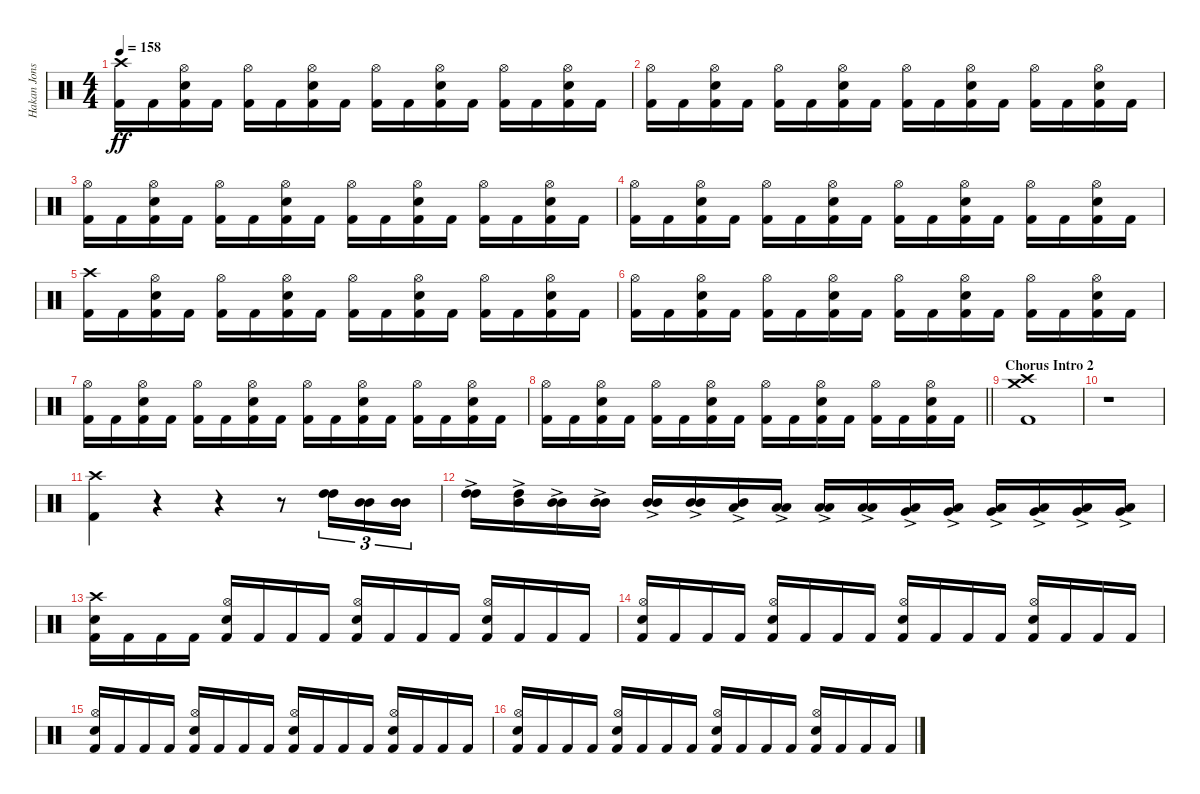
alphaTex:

\track ("Hakan Jonsson" "Hakan Jons") {instrument percussion}
\staff {score}
\articulation defaults
\ts (4 4)
\tempo 158
\clef neutral
\ks c
("Crash high (hit)" "Kick (hit) 2").16{dy ff} "Kick (hit) 2".16 ("Hi-Hat (open)" "Electric Snare (hit)" "Kick (hit) 2").16 "Kick (hit) 2".16 ("Hi-Hat (open)" "Kick (hit) 2").16 "Kick (hit) 2".16 ("Hi-Hat (open)" "Electric Snare (hit)" "Kick (hit) 2").16 "Kick (hit) 2".16 ("Hi-Hat (open)" "Kick (hit) 2").16 "Kick (hit) 2".16 ("Hi-Hat (open)" "Electric Snare (hit)" "Kick (hit) 2").16 "Kick (hit) 2".16 ("Hi-Hat (open)" "Kick (hit) 2").16 "Kick (hit) 2".16 ("Hi-Hat (open)" "Electric Snare (hit)" "Kick (hit) 2").16 "Kick (hit) 2".16 |
("Hi-Hat (open)" "Kick (hit) 2").16 "Kick (hit) 2".16 ("Hi-Hat (open)" "Electric Snare (hit)" "Kick (hit) 2").16 "Kick (hit) 2".16 ("Hi-Hat (open)" "Kick (hit) 2").16 "Kick (hit) 2".16 ("Hi-Hat (open)" "Electric Snare (hit)" "Kick (hit) 2").16 "Kick (hit) 2".16 ("Hi-Hat (open)" "Kick (hit) 2").16 "Kick (hit) 2".16 ("Hi-Hat (open)" "Electric Snare (hit)" "Kick (hit) 2").16 "Kick (hit) 2".16 ("Hi-Hat (open)" "Kick (hit) 2").16 "Kick (hit) 2".16 ("Hi-Hat (open)" "Electric Snare (hit)" "Kick (hit) 2").16 "Kick (hit) 2".16 |
("Hi-Hat (open)" "Kick (hit) 2").16 "Kick (hit) 2".16 ("Hi-Hat (open)" "Electric Snare (hit)" "Kick (hit) 2").16 "Kick (hit) 2".16 ("Hi-Hat (open)" "Kick (hit) 2").16 "Kick (hit) 2".16 ("Hi-Hat (open)" "Electric Snare (hit)" "Kick (hit) 2").16 "Kick (hit) 2".16 ("Hi-Hat (open)" "Kick (hit) 2").16 "Kick (hit) 2".16 ("Hi-Hat (open)" "Electric Snare (hit)" "Kick (hit) 2").16 "Kick (hit) 2".16 ("Hi-Hat (open)" "Kick (hit) 2").16 "Kick (hit) 2".16 ("Hi-Hat (open)" "Electric Snare (hit)" "Kick (hit) 2").16 "Kick (hit) 2".16 |
("Hi-Hat (open)" "Kick (hit) 2").16 "Kick (hit) 2".16 ("Hi-Hat (open)" "Electric Snare (hit)" "Kick (hit) 2").16 "Kick (hit) 2".16 ("Hi-Hat (open)" "Kick (hit) 2").16 "Kick (hit) 2".16 ("Hi-Hat (open)" "Electric Snare (hit)" "Kick (hit) 2").16 "Kick (hit) 2".16 ("Hi-Hat (open)" "Kick (hit) 2").16 "Kick (hit) 2".16 ("Hi-Hat (open)" "Electric Snare (hit)" "Kick (hit) 2").16 "Kick (hit) 2".16 ("Hi-Hat (open)" "Kick (hit) 2").16 "Kick (hit) 2".16 ("Hi-Hat (open)" "Electric Snare (hit)" "Kick (hit) 2").16 "Kick (hit) 2".16 |
("Crash high (hit)" "Kick (hit) 2").16 "Kick (hit) 2".16 ("Hi-Hat (open)" "Electric Snare (hit)" "Kick (hit) 2").16 "Kick (hit) 2".16 ("Hi-Hat (open)" "Kick (hit) 2").16 "Kick (hit) 2".16 ("Hi-Hat (open)" "Electric Snare (hit)" "Kick (hit) 2").16 "Kick (hit) 2".16 ("Hi-Hat (open)" "Kick (hit) 2").16 "Kick (hit) 2".16 ("Hi-Hat (open)" "Electric Snare (hit)" "Kick (hit) 2").16 "Kick (hit) 2".16 ("Hi-Hat (open)" "Kick (hit) 2").16 "Kick (hit) 2".16 ("Hi-Hat (open)" "Electric Snare (hit)" "Kick (hit) 2").16 "Kick (hit) 2".16 |
("Hi-Hat (open)" "Kick (hit) 2").16 "Kick (hit) 2".16 ("Hi-Hat (open)" "Electric Snare (hit)" "Kick (hit) 2").16 "Kick (hit) 2".16 ("Hi-Hat (open)" "Kick (hit) 2").16 "Kick (hit) 2".16 ("Hi-Hat (open)" "Electric Snare (hit)" "Kick (hit) 2").16 "Kick (hit) 2".16 ("Hi-Hat (open)" "Kick (hit) 2").16 "Kick (hit) 2".16 ("Hi-Hat (open)" "Electric Snare (hit)" "Kick (hit) 2").16 "Kick (hit) 2".16 ("Hi-Hat (open)" "Kick (hit) 2").16 "Kick (hit) 2".16 ("Hi-Hat (open)" "Electric Snare (hit)" "Kick (hit) 2").16 "Kick (hit) 2".16 |
("Hi-Hat (open)" "Kick (hit) 2").16 "Kick (hit) 2".16 ("Hi-Hat (open)" "Electric Snare (hit)" "Kick (hit) 2").16 "Kick (hit) 2".16 ("Hi-Hat (open)" "Kick (hit) 2").16 "Kick (hit) 2".16 ("Hi-Hat (open)" "Electric Snare (hit)" "Kick (hit) 2").16 "Kick (hit) 2".16 ("Hi-Hat (open)" "Kick (hit) 2").16 "Kick (hit) 2".16 ("Hi-Hat (open)" "Electric Snare (hit)" "Kick (hit) 2").16 "Kick (hit) 2".16 ("Hi-Hat (open)" "Kick (hit) 2").16 "Kick (hit) 2".16 ("Hi-Hat (open)" "Electric Snare (hit)" "Kick (hit) 2").16 "Kick (hit) 2".16 |
\barLineRight lightlight
("Hi-Hat (open)" "Kick (hit) 2").16 "Kick (hit) 2".16 ("Hi-Hat (open)" "Electric Snare (hit)" "Kick (hit) 2").16 "Kick (hit) 2".16 ("Hi-Hat (open)" "Kick (hit) 2").16 "Kick (hit) 2".16 ("Hi-Hat (open)" "Electric Snare (hit)" "Kick (hit) 2").16 "Kick (hit) 2".16 ("Hi-Hat (open)" "Kick (hit) 2").16 "Kick (hit) 2".16 ("Hi-Hat (open)" "Electric Snare (hit)" "Kick (hit) 2").16 "Kick (hit) 2".16 ("Hi-Hat (open)" "Kick (hit) 2").16 "Kick (hit) 2".16 ("Hi-Hat (open)" "Electric Snare (hit)" "Kick (hit) 2").16 "Kick (hit) 2".16 |
\section ("" "Chorus Intro 2")
("Crash medium (hit)" "Crash high (hit)" "Kick (hit) 2").1 |
r.1 |
("Crash high (hit)" "Kick (hit) 2").4 r.4 r.4 r.8 ("High Tom (hit)" "High Tom (hit)").16{tu (3 2)} ("Mid Tom (hit)" "Mid Tom (hit)").16{tu (3 2)} ("Mid Tom (hit)" "Mid Tom (hit)").16{tu (3 2)} |
("High Tom (hit)"{ac} "High Tom (hit)").16 ("Mid Tom (hit)"{ac} "High Tom (hit)").16 ("Mid Tom (hit)"{ac} "Mid Tom (hit)").16 ("Mid Tom (hit)"{ac} "Mid Tom (hit)").16 ("Mid Tom (hit)"{ac} "Mid Tom (hit)").16 ("Mid Tom (hit)"{ac} "Mid Tom (hit)").16 ("Mid Tom (hit)"{ac} "Low Tom (hit)").16 ("Low Tom (hit)"{ac} "Low Tom (hit)").16 ("Low Tom (hit)"{ac} "Low Tom (hit)").16 ("Low Tom (hit)"{ac} "Low Tom (hit)").16 ("Low Tom (hit)"{ac} "Very Low Tom (hit)").16 ("Low Tom (hit)"{ac} "Very Low Tom (hit)").16 ("Low Tom (hit)"{ac} "Very Low Tom (hit)").16 ("Very Low Tom (hit)"{ac} "Low Floor Tom (hit)").16 ("Very Low Tom (hit)"{ac} "Low Floor Tom (hit)").16 ("Very Low Tom (hit)"{ac} "Low Floor Tom (hit)").16 |
("Crash high (hit)" "Electric Snare (hit)" "Kick (hit) 2").16 "Kick (hit) 2".16 "Kick (hit) 2".16 "Kick (hit) 2".16 ("Hi-Hat (open)" "Electric Snare (hit)" "Kick (hit) 2").16 "Kick (hit) 2".16 "Kick (hit) 2".16 "Kick (hit) 2".16 ("Hi-Hat (open)" "Electric Snare (hit)" "Kick (hit) 2").16 "Kick (hit) 2".16 "Kick (hit) 2".16 "Kick (hit) 2".16 ("Hi-Hat (open)" "Electric Snare (hit)" "Kick (hit) 2").16 "Kick (hit) 2".16 "Kick (hit) 2".16 "Kick (hit) 2".16 |
("Hi-Hat (open)" "Electric Snare (hit)" "Kick (hit) 2").16 "Kick (hit) 2".16 "Kick (hit) 2".16 "Kick (hit) 2".16 ("Hi-Hat (open)" "Electric Snare (hit)" "Kick (hit) 2").16 "Kick (hit) 2".16 "Kick (hit) 2".16 "Kick (hit) 2".16 ("Hi-Hat (open)" "Electric Snare (hit)" "Kick (hit) 2").16 "Kick (hit) 2".16 "Kick (hit) 2".16 "Kick (hit) 2".16 ("Hi-Hat (open)" "Electric Snare (hit)" "Kick (hit) 2").16 "Kick (hit) 2".16 "Kick (hit) 2".16 "Kick (hit) 2".16 |
("Hi-Hat (open)" "Electric Snare (hit)" "Kick (hit) 2").16 "Kick (hit) 2".16 "Kick (hit) 2".16 "Kick (hit) 2".16 ("Hi-Hat (open)" "Electric Snare (hit)" "Kick (hit) 2").16 "Kick (hit) 2".16 "Kick (hit) 2".16 "Kick (hit) 2".16 ("Hi-Hat (open)" "Electric Snare (hit)" "Kick (hit) 2").16 "Kick (hit) 2".16 "Kick (hit) 2".16 "Kick (hit) 2".16 ("Hi-Hat (open)" "Electric Snare (hit)" "Kick (hit) 2").16 "Kick (hit) 2".16 "Kick (hit) 2".16 "Kick (hit) 2".16 |
("Hi-Hat (open)" "Electric Snare (hit)" "Kick (hit) 2").16 "Kick (hit) 2".16 "Kick (hit) 2".16 "Kick (hit) 2".16 ("Hi-Hat (open)" "Electric Snare (hit)" "Kick (hit) 2").16 "Kick (hit) 2".16 "Kick (hit) 2".16 "Kick (hit) 2".16 ("Hi-Hat (open)" "Electric Snare (hit)" "Kick (hit) 2").16 "Kick (hit) 2".16 "Kick (hit) 2".16 "Kick (hit) 2".16 ("Hi-Hat (open)" "Electric Snare (hit)" "Kick (hit) 2").16 "Kick (hit) 2".16 "Kick (hit) 2".16 "Kick (hit) 2".16
